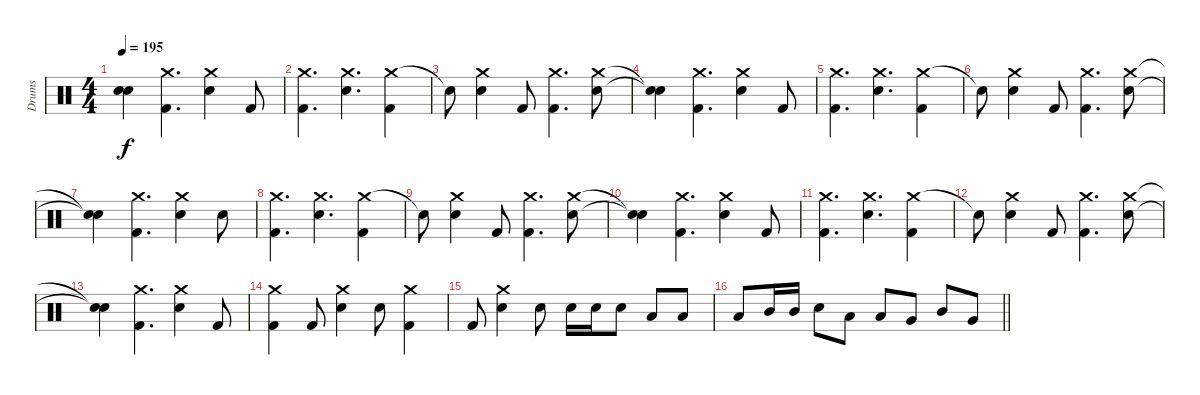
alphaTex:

\track ("Drums" "Drums") {instrument percussion}
\staff {score}
\articulation defaults
\ts (4 4)
\tempo 195
\clef neutral
\ks c
("Snare (hit)"{t} "Snare (hit)"{t}).4{dy f} ("Crash medium (hit)" "Kick (hit) 2").4{d} ("Crash medium (hit)" "Electric Snare (hit)").4 "Kick (hit) 2".8 |
("Crash medium (hit)" "Kick (hit) 2").4{d} ("Crash medium (hit)" "Electric Snare (hit)").4{d} ("Crash medium (hit)" "Kick (hit) 2").4 |
"Snare (hit)"{t}.8 ("Crash medium (hit)" "Electric Snare (hit)").4 "Kick (hit) 2".8 ("Crash medium (hit)" "Kick (hit) 2").4{d} ("Crash medium (hit)" "Electric Snare (hit)").8 |
("Snare (hit)"{t} "Snare (hit)"{t}).4 ("Crash medium (hit)" "Kick (hit) 2").4{d} ("Crash medium (hit)" "Electric Snare (hit)").4 "Kick (hit) 2".8 |
("Crash medium (hit)" "Kick (hit) 2").4{d} ("Crash medium (hit)" "Electric Snare (hit)").4{d} ("Crash medium (hit)" "Kick (hit) 2").4 |
"Snare (hit)"{t}.8 ("Crash medium (hit)" "Electric Snare (hit)").4 "Kick (hit) 2".8 ("Crash medium (hit)" "Kick (hit) 2").4{d} ("Crash medium (hit)" "Electric Snare (hit)").8 |
("Snare (hit)"{t} "Snare (hit)"{t}).4 ("Crash medium (hit)" "Kick (hit) 2").4{d} ("Crash medium (hit)" "Electric Snare (hit)").4 "Electric Snare (hit)".8 |
("Crash medium (hit)" "Kick (hit) 2").4{d} ("Crash medium (hit)" "Electric Snare (hit)").4{d} ("Crash medium (hit)" "Kick (hit) 2").4 |
"Snare (hit)"{t}.8 ("Crash medium (hit)" "Electric Snare (hit)").4 "Kick (hit) 2".8 ("Crash medium (hit)" "Kick (hit) 2").4{d} ("Crash medium (hit)" "Electric Snare (hit)").8 |
("Snare (hit)"{t} "Snare (hit)"{t}).4 ("Crash medium (hit)" "Kick (hit) 2").4{d} ("Crash medium (hit)" "Electric Snare (hit)").4 "Kick (hit) 2".8 |
("Crash medium (hit)" "Kick (hit) 2").4{d} ("Crash medium (hit)" "Electric Snare (hit)").4{d} ("Crash medium (hit)" "Kick (hit) 2").4 |
"Snare (hit)"{t}.8 ("Crash medium (hit)" "Electric Snare (hit)").4 "Kick (hit) 2".8 ("Crash medium (hit)" "Kick (hit) 2").4{d} ("Crash medium (hit)" "Electric Snare (hit)").8 |
("Snare (hit)"{t} "Snare (hit)"{t}).4 ("Crash medium (hit)" "Kick (hit) 2").4{d} ("Crash medium (hit)" "Electric Snare (hit)").4 "Kick (hit) 2".8 |
("Crash medium (hit)" "Kick (hit) 2").4 "Kick (hit) 2".8 ("Crash medium (hit)" "Electric Snare (hit)").4 "Electric Snare (hit)".8 ("Crash medium (hit)" "Kick (hit) 2").4 |
"Kick (hit) 2".8 ("Crash medium (hit)" "Electric Snare (hit)").4 "Electric Snare (hit)".8 "Electric Snare (hit)".16 "Electric Snare (hit)".16 "Electric Snare (hit)".8 "Low Tom (hit)".8 "Low Tom (hit)".8 |
\barLineRight lightlight "Low Tom (hit)".8 "Mid Tom (hit)".16 "Mid Tom (hit)".16 "Electric Snare (hit)".8 "Low Tom (hit)".8 "Low Tom (hit)".8 "Very Low Tom (hit)".8 "Mid Tom (hit)".8 "Very Low Tom (hit)".8
